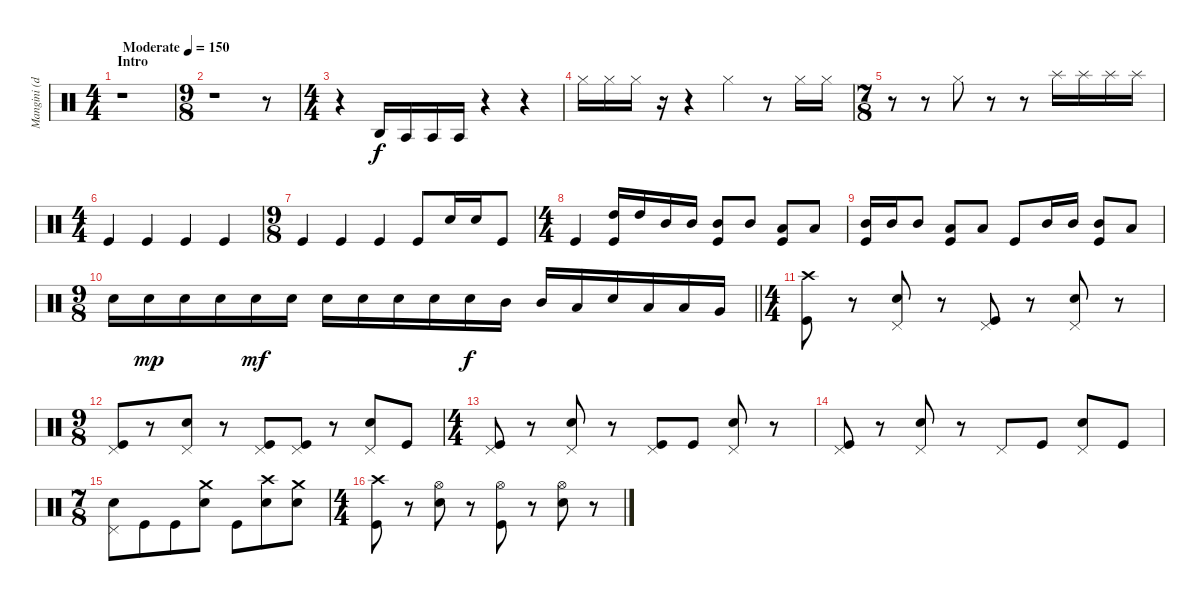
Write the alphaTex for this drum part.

\track ("Mangini (drums)" "Mangini (d") {instrument percussion}
\staff {score}
\articulation defaults
\ts (4 4)
\section ("" "Intro")
\tempo (150 "Moderate")
\clef neutral
\ks aminor
r.1{dy f} |
\ts (9 8)
r.1 r.8 |
\ts (4 4)
r.4 "Agogo high (hit)".16 "Agogo tow (hit)".16 "Agogo tow (hit)".16 "Agogo tow (hit)".16 r.4 r.4 |
"Hi-Hat (closed)".16 "Hi-Hat (closed)".16 "Hi-Hat (closed)".16 r.16 r.4 "Hi-Hat (closed)".4 r.8 "Hi-Hat (closed)".16 "Hi-Hat (closed)".16 |
\ts (7 8)
r.8 r.8 "Hi-Hat (closed)".8 r.8 r.8 "Splash (hit)".16 "Splash (hit)".16 "Splash (hit)".16 "Splash (hit)".16 |
\ts (4 4)
"Kick (hit)".4 "Kick (hit)".4 "Kick (hit)".4 "Kick (hit)".4 |
\ts (9 8)
"Kick (hit)".4 "Kick (hit)".4 "Kick (hit)".4 "Kick (hit)".8 "Snare (hit) 2".16 "Snare (hit) 2".16 "Kick (hit)".8 |
\ts (4 4)
"Kick (hit)".4 ("High Tom (hit)" "Kick (hit)").16 "High Tom (hit)".16 "Mid Tom (hit)".16 "Mid Tom (hit)".16 ("Mid Tom (hit)" "Kick (hit)").8 "Mid Tom (hit)".8 ("Low Tom (hit)" "Kick (hit)").8 "Low Tom (hit)".8 |
("Mid Tom (hit)" "Kick (hit)").16 "Mid Tom (hit)".16 "Mid Tom (hit)".8 ("Low Tom (hit)" "Kick (hit)").8 "Low Tom (hit)".8 "Kick (hit)".8 "Mid Tom (hit)".16 "Mid Tom (hit)".16 ("Mid Tom (hit)" "Kick (hit)").8 "Low Tom (hit)".8 |
\ts (9 8)
\barLineRight lightlight "Snare (hit) 2".16 "Snare (hit) 2".16{dy mp} "Snare (hit) 2".16 "Snare (hit) 2".16 "Snare (hit) 2".16{dy mf} "Snare (hit) 2".16 "Snare (hit) 2".16 "Snare (hit) 2".16 "Snare (hit) 2".16 "Snare (hit) 2".16 "Snare (hit) 2".16{dy f} "Mid Tom (hit)".16 "Mid Tom (hit)".16 "Low Tom (hit)".16 "Snare (hit) 2".16 "Low Tom (hit)".16 "Low Tom (hit)".16 "Very Low Tom (hit)".16
|
\ts (4 4)
("Crash high (hit)" "Kick (hit)").8 r.8 ("Pedal Hi-Hat (hit)" "Snare (hit) 2").8 r.8 ("Pedal Hi-Hat (hit)" "Kick (hit)").8 r.8 ("Pedal Hi-Hat (hit)" "Snare (hit) 2").8 r.8 |
\ts (9 8)
("Pedal Hi-Hat (hit)" "Kick (hit)").8 r.8 ("Pedal Hi-Hat (hit)" "Snare (hit) 2").8 r.8 ("Pedal Hi-Hat (hit)" "Kick (hit)").8 ("Pedal Hi-Hat (hit)" "Kick (hit)").8 r.8 ("Pedal Hi-Hat (hit)" "Snare (hit) 2").8 "Kick (hit)".8 |
\ts (4 4)
("Pedal Hi-Hat (hit)" "Kick (hit)").8 r.8 ("Pedal Hi-Hat (hit)" "Snare (hit) 2").8 r.8 ("Pedal Hi-Hat (hit)" "Kick (hit)").8 "Kick (hit)".8 ("Pedal Hi-Hat (hit)" "Snare (hit) 2").8 r.8 |
("Pedal Hi-Hat (hit)" "Kick (hit)").8 r.8 ("Pedal Hi-Hat (hit)" "Snare (hit) 2").8 r.8 "Pedal Hi-Hat (hit)".8 "Kick (hit)".8 ("Pedal Hi-Hat (hit)" "Snare (hit) 2").8 "Kick (hit)".8 |
\ts (7 8)
("Pedal Hi-Hat (hit)" "Snare (hit) 2").8 "Kick (hit)".8 "Kick (hit)".8 ("Crash medium (hit)" "Snare (hit) 2").8 "Kick (hit)".8 ("Crash high (hit)" "Snare (hit) 2").8 ("Crash medium (hit)" "Snare (hit) 2").8 |
\ts (4 4)
("Crash high (hit)" "Kick (hit)").8 r.8 ("Hi-Hat (open)" "Snare (hit) 2").8 r.8 ("Hi-Hat (open)" "Kick (hit)").8 r.8 ("Hi-Hat (open)" "Snare (hit) 2").8 r.8
